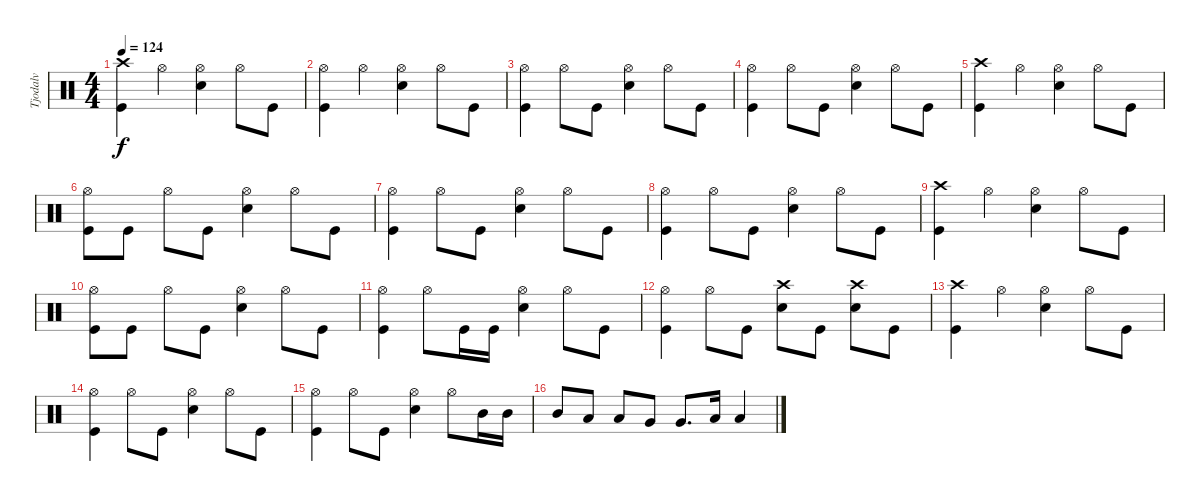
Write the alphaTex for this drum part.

\track ("Tjodalv" "Tjodalv") {instrument percussion}
\staff {score}
\articulation defaults
\ts (4 4)
\tempo 124
\clef neutral
\ks c
("Crash high (hit)" "Kick (hit)").4{dy f} "Hi-Hat (open)".4 ("Hi-Hat (open)" "Snare (hit) 2").4 "Hi-Hat (open)".8 "Kick (hit)".8 |
("Kick (hit)" "Hi-Hat (open)").4 "Hi-Hat (open)".4 ("Hi-Hat (open)" "Snare (hit) 2").4 "Hi-Hat (open)".8 "Kick (hit)".8 |
("Kick (hit)" "Hi-Hat (open)").4 "Hi-Hat (open)".8 "Kick (hit)".8 ("Hi-Hat (open)" "Snare (hit) 2").4 "Hi-Hat (open)".8 "Kick (hit)".8 |
("Kick (hit)" "Hi-Hat (open)").4 "Hi-Hat (open)".8 "Kick (hit)".8 ("Hi-Hat (open)" "Snare (hit) 2").4 "Hi-Hat (open)".8 "Kick (hit)".8 |
("Crash high (hit)" "Kick (hit)").4 "Hi-Hat (open)".4 ("Hi-Hat (open)" "Snare (hit) 2").4 "Hi-Hat (open)".8 "Kick (hit)".8 |
("Kick (hit)" "Hi-Hat (open)").8 "Kick (hit)".8 "Hi-Hat (open)".8 "Kick (hit)".8 ("Hi-Hat (open)" "Snare (hit) 2").4 "Hi-Hat (open)".8 "Kick (hit)".8 |
("Kick (hit)" "Hi-Hat (open)").4 "Hi-Hat (open)".8 "Kick (hit)".8 ("Hi-Hat (open)" "Snare (hit) 2").4 "Hi-Hat (open)".8 "Kick (hit)".8 |
("Kick (hit)" "Hi-Hat (open)").4 "Hi-Hat (open)".8 "Kick (hit)".8 ("Hi-Hat (open)" "Snare (hit) 2").4 "Hi-Hat (open)".8 "Kick (hit)".8 |
("Crash high (hit)" "Kick (hit)").4 "Hi-Hat (open)".4 ("Hi-Hat (open)" "Snare (hit) 2").4 "Hi-Hat (open)".8 "Kick (hit)".8 |
("Kick (hit)" "Hi-Hat (open)").8 "Kick (hit)".8 "Hi-Hat (open)".8 "Kick (hit)".8 ("Hi-Hat (open)" "Snare (hit) 2").4 "Hi-Hat (open)".8 "Kick (hit)".8 |
("Kick (hit)" "Hi-Hat (open)").4 "Hi-Hat (open)".8 "Kick (hit)".16 "Kick (hit)".16 ("Hi-Hat (open)" "Snare (hit) 2").4 "Hi-Hat (open)".8 "Kick (hit)".8 |
("Kick (hit)" "Hi-Hat (open)").4 "Hi-Hat (open)".8 "Kick (hit)".8 ("Crash high (hit)" "Snare (hit) 2").8 "Kick (hit)".8 ("Crash high (hit)" "Snare (hit) 2").8 "Kick (hit)".8 |
("Crash high (hit)" "Kick (hit)").4 "Hi-Hat (open)".4 ("Hi-Hat (open)" "Snare (hit) 2").4 "Hi-Hat (open)".8 "Kick (hit)".8 |
("Kick (hit)" "Hi-Hat (open)").4 "Hi-Hat (open)".8 "Kick (hit)".8 ("Hi-Hat (open)" "Snare (hit) 2").4 "Hi-Hat (open)".8 "Kick (hit)".8 |
("Kick (hit)" "Hi-Hat (open)").4 "Hi-Hat (open)".8 "Kick (hit)".8 ("Hi-Hat (open)" "Snare (hit) 2").4 "Hi-Hat (open)".8 "Mid Tom (hit)".16 "Mid Tom (hit)".16 |
"Mid Tom (hit)".8 "Low Tom (hit)".8 "Low Tom (hit)".8 "Very Low Tom (hit)".8 "Very Low Tom (hit)".8{d} "Low Floor Tom (hit)".16 "Low Floor Tom (hit)".4
